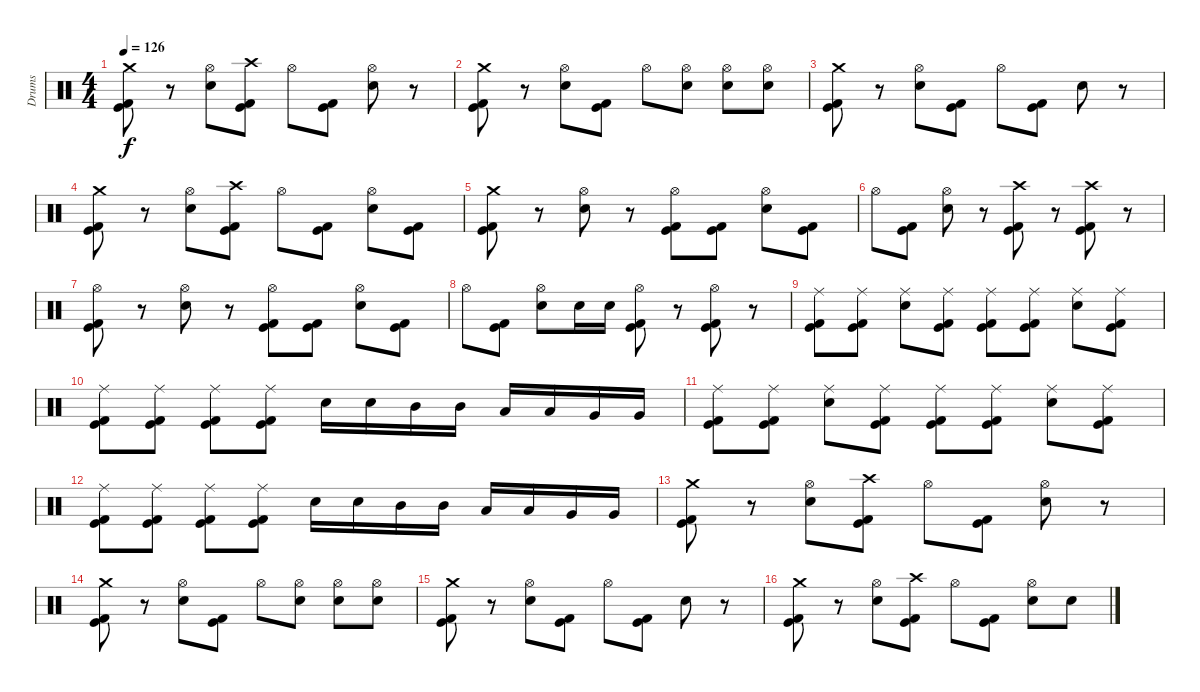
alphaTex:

\track ("Drums" "Drums") {instrument percussion}
\staff {score}
\articulation defaults
\ts (4 4)
\tempo 126
\clef neutral
\ks c
("Crash medium (hit)" "Kick (hit) 2" "Kick (hit)").8{dy f} r.8 ("Hi-Hat (open)" "Snare (hit) 2").8 ("Crash high (hit)" "Kick (hit) 2" "Kick (hit)").8 "Hi-Hat (open)".8 ("Kick (hit) 2" "Kick (hit)").8 ("Hi-Hat (open)" "Snare (hit) 2").8 r.8 |
("Crash medium (hit)" "Kick (hit) 2" "Kick (hit)").8 r.8 ("Hi-Hat (open)" "Snare (hit) 2").8 ("Kick (hit) 2" "Kick (hit)").8 "Hi-Hat (open)".8 ("Hi-Hat (open)" "Snare (hit) 2").8 ("Hi-Hat (open)" "Snare (hit) 2").8 ("Hi-Hat (open)" "Snare (hit) 2").8 |
("Crash medium (hit)" "Kick (hit) 2" "Kick (hit)").8 r.8 ("Hi-Hat (open)" "Snare (hit) 2").8 ("Kick (hit) 2" "Kick (hit)").8 "Hi-Hat (open)".8 ("Kick (hit) 2" "Kick (hit)").8 "Snare (hit) 2".8 r.8 |
("Crash medium (hit)" "Kick (hit) 2" "Kick (hit)").8 r.8 ("Hi-Hat (open)" "Snare (hit) 2").8 ("Crash high (hit)" "Kick (hit) 2" "Kick (hit)").8 "Hi-Hat (open)".8 ("Kick (hit) 2" "Kick (hit)").8 ("Hi-Hat (open)" "Snare (hit) 2").8 ("Kick (hit) 2" "Kick (hit)").8 |
("Crash medium (hit)" "Kick (hit) 2" "Kick (hit)").8 r.8 ("Hi-Hat (open)" "Snare (hit) 2").8 r.8 ("Hi-Hat (open)" "Kick (hit) 2" "Kick (hit)").8 ("Kick (hit) 2" "Kick (hit)").8 ("Hi-Hat (open)" "Snare (hit) 2").8 ("Kick (hit) 2" "Kick (hit)").8 |
"Hi-Hat (open)".8 ("Kick (hit) 2" "Kick (hit)").8 ("Hi-Hat (open)" "Snare (hit) 2").8 r.8 ("Crash high (hit)" "Kick (hit) 2" "Kick (hit)").8 r.8 ("Crash high (hit)" "Kick (hit) 2" "Kick (hit)").8 r.8 |
("Hi-Hat (open)" "Kick (hit) 2" "Kick (hit)").8 r.8 ("Hi-Hat (open)" "Snare (hit) 2").8 r.8 ("Hi-Hat (open)" "Kick (hit) 2" "Kick (hit)").8 ("Kick (hit) 2" "Kick (hit)").8 ("Hi-Hat (open)" "Snare (hit) 2").8 ("Kick (hit) 2" "Kick (hit)").8 |
"Hi-Hat (open)".8 ("Kick (hit) 2" "Kick (hit)").8 ("Hi-Hat (open)" "Snare (hit) 2").8 "Snare (hit) 2".16 "Snare (hit) 2".16 ("Hi-Hat (open)" "Kick (hit) 2" "Kick (hit)").8 r.8 ("Hi-Hat (open)" "Kick (hit) 2" "Kick (hit)").8 r.8 |
("Ride (middle)" "Kick (hit) 2" "Kick (hit)").8 ("Ride (middle)" "Kick (hit) 2" "Kick (hit)").8 ("Ride (middle)" "Snare (hit) 2").8 ("Ride (middle)" "Kick (hit) 2" "Kick (hit)").8 ("Ride (middle)" "Kick (hit) 2" "Kick (hit)").8 ("Ride (middle)" "Kick (hit) 2" "Kick (hit)").8 ("Ride (middle)" "Snare (hit) 2").8 ("Ride (middle)" "Kick (hit) 2" "Kick (hit)").8 |
("Ride (middle)" "Kick (hit) 2" "Kick (hit)").8 ("Ride (middle)" "Kick (hit) 2" "Kick (hit)").8 ("Ride (middle)" "Kick (hit) 2" "Kick (hit)").8 ("Ride (middle)" "Kick (hit) 2" "Kick (hit)").8 "Snare (hit) 2".16 "Snare (hit) 2".16 "Mid Tom (hit)".16 "Mid Tom (hit)".16 "Low Tom (hit)".16 "Low Tom (hit)".16 "Very Low Tom (hit)".16 "Very Low Tom (hit)".16 |
("Ride (middle)" "Kick (hit) 2" "Kick (hit)").8 ("Ride (middle)" "Kick (hit) 2" "Kick (hit)").8 ("Ride (middle)" "Snare (hit) 2").8 ("Ride (middle)" "Kick (hit) 2" "Kick (hit)").8 ("Ride (middle)" "Kick (hit) 2" "Kick (hit)").8 ("Ride (middle)" "Kick (hit) 2" "Kick (hit)").8 ("Ride (middle)" "Snare (hit) 2").8 ("Ride (middle)" "Kick (hit) 2" "Kick (hit)").8 |
("Ride (middle)" "Kick (hit) 2" "Kick (hit)").8 ("Ride (middle)" "Kick (hit) 2" "Kick (hit)").8 ("Ride (middle)" "Kick (hit) 2" "Kick (hit)").8 ("Ride (middle)" "Kick (hit) 2" "Kick (hit)").8 "Snare (hit) 2".16 "Snare (hit) 2".16 "Mid Tom (hit)".16 "Mid Tom (hit)".16 "Low Tom (hit)".16 "Low Tom (hit)".16 "Very Low Tom (hit)".16 "Very Low Tom (hit)".16 |
("Crash medium (hit)" "Kick (hit) 2" "Kick (hit)").8 r.8 ("Hi-Hat (open)" "Snare (hit) 2").8 ("Crash high (hit)" "Kick (hit) 2" "Kick (hit)").8 "Hi-Hat (open)".8 ("Kick (hit) 2" "Kick (hit)").8 ("Hi-Hat (open)" "Snare (hit) 2").8 r.8 |
("Crash medium (hit)" "Kick (hit) 2" "Kick (hit)").8 r.8 ("Hi-Hat (open)" "Snare (hit) 2").8 ("Kick (hit) 2" "Kick (hit)").8 "Hi-Hat (open)".8 ("Hi-Hat (open)" "Snare (hit) 2").8 ("Hi-Hat (open)" "Snare (hit) 2").8 ("Hi-Hat (open)" "Snare (hit) 2").8 |
("Crash medium (hit)" "Kick (hit) 2" "Kick (hit)").8 r.8 ("Hi-Hat (open)" "Snare (hit) 2").8 ("Kick (hit) 2" "Kick (hit)").8 "Hi-Hat (open)".8 ("Kick (hit) 2" "Kick (hit)").8 "Snare (hit) 2".8 r.8 |
("Crash medium (hit)" "Kick (hit) 2" "Kick (hit)").8 r.8 ("Hi-Hat (open)" "Snare (hit) 2").8 ("Crash high (hit)" "Kick (hit) 2" "Kick (hit)").8 "Hi-Hat (open)".8 ("Kick (hit) 2" "Kick (hit)").8 ("Hi-Hat (open)" "Snare (hit) 2").8 "Snare (hit) 2".8
